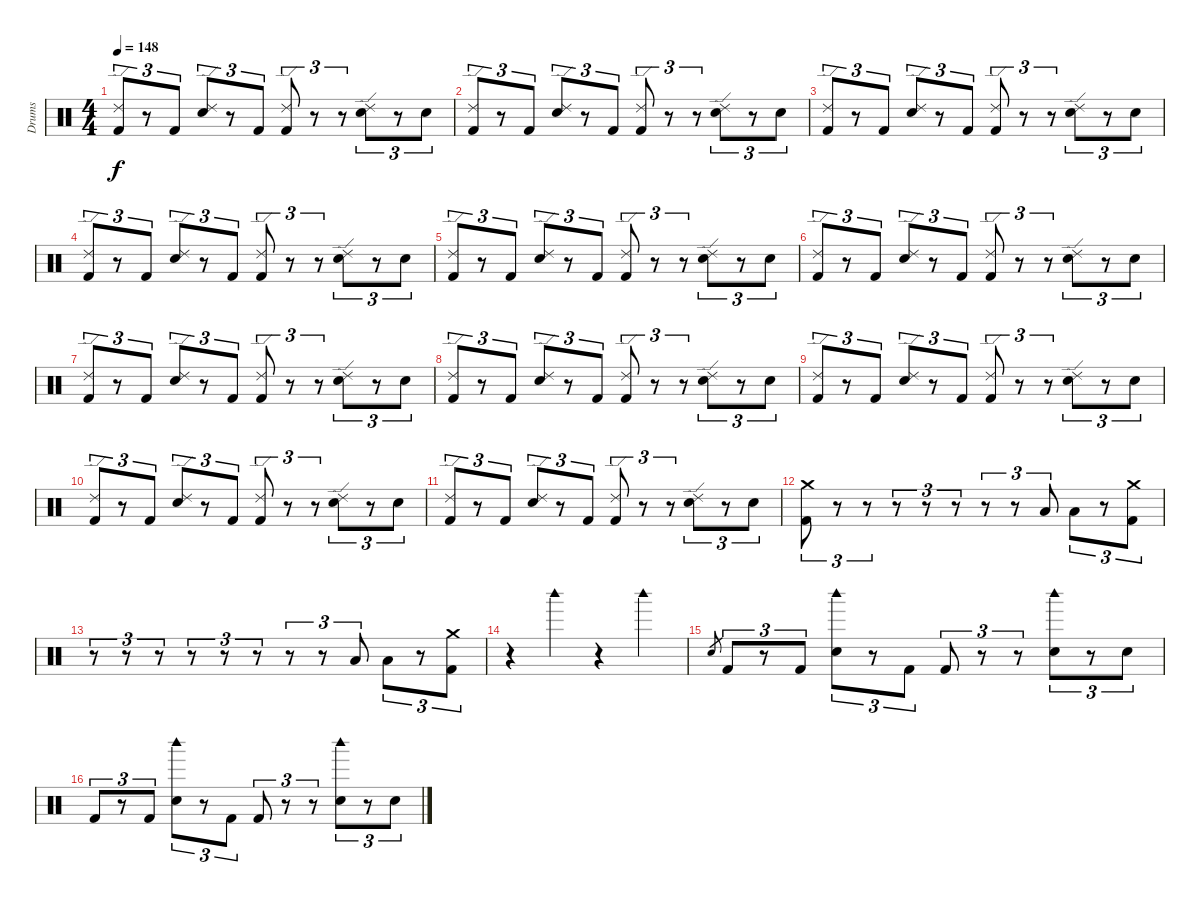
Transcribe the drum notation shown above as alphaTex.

\track ("Drums" "Drums") {instrument percussion}
\staff {score}
\articulation defaults
\ts (4 4)
\tempo 148
\clef neutral
\ks c
("Ride (edge) 2" "Kick (hit) 2").8{tu (3 2) dy f} r.8{tu (3 2)} "Kick (hit) 2".8{tu (3 2)} ("Ride (edge) 2" "Snare (hit) 2").8{tu (3 2)} r.8{tu (3 2)} "Kick (hit) 2".8{tu (3 2)} ("Ride (edge) 2" "Kick (hit) 2").8{tu (3 2)} r.8{tu (3 2)} r.8{tu (3 2)} ("Ride (edge) 2" "Snare (hit) 2").8{tu (3 2)} r.8{tu (3 2)} "Snare (hit) 2".8{tu (3 2)} |
("Ride (edge) 2" "Kick (hit) 2").8{tu (3 2)} r.8{tu (3 2)} "Kick (hit) 2".8{tu (3 2)} ("Ride (edge) 2" "Snare (hit) 2").8{tu (3 2)} r.8{tu (3 2)} "Kick (hit) 2".8{tu (3 2)} ("Ride (edge) 2" "Kick (hit) 2").8{tu (3 2)} r.8{tu (3 2)} r.8{tu (3 2)} ("Ride (edge) 2" "Snare (hit) 2").8{tu (3 2)} r.8{tu (3 2)} "Snare (hit) 2".8{tu (3 2)} |
("Ride (edge) 2" "Kick (hit) 2").8{tu (3 2)} r.8{tu (3 2)} "Kick (hit) 2".8{tu (3 2)} ("Ride (edge) 2" "Snare (hit) 2").8{tu (3 2)} r.8{tu (3 2)} "Kick (hit) 2".8{tu (3 2)} ("Ride (edge) 2" "Kick (hit) 2").8{tu (3 2)} r.8{tu (3 2)} r.8{tu (3 2)} ("Ride (edge) 2" "Snare (hit) 2").8{tu (3 2)} r.8{tu (3 2)} "Snare (hit) 2".8{tu (3 2)} |
("Ride (edge) 2" "Kick (hit) 2").8{tu (3 2)} r.8{tu (3 2)} "Kick (hit) 2".8{tu (3 2)} ("Ride (edge) 2" "Snare (hit) 2").8{tu (3 2)} r.8{tu (3 2)} "Kick (hit) 2".8{tu (3 2)} ("Ride (edge) 2" "Kick (hit) 2").8{tu (3 2)} r.8{tu (3 2)} r.8{tu (3 2)} ("Ride (edge) 2" "Snare (hit) 2").8{tu (3 2)} r.8{tu (3 2)} "Snare (hit) 2".8{tu (3 2)} |
("Ride (edge) 2" "Kick (hit) 2").8{tu (3 2)} r.8{tu (3 2)} "Kick (hit) 2".8{tu (3 2)} ("Ride (edge) 2" "Snare (hit) 2").8{tu (3 2)} r.8{tu (3 2)} "Kick (hit) 2".8{tu (3 2)} ("Ride (edge) 2" "Kick (hit) 2").8{tu (3 2)} r.8{tu (3 2)} r.8{tu (3 2)} ("Ride (edge) 2" "Snare (hit) 2").8{tu (3 2)} r.8{tu (3 2)} "Snare (hit) 2".8{tu (3 2)} |
("Ride (edge) 2" "Kick (hit) 2").8{tu (3 2)} r.8{tu (3 2)} "Kick (hit) 2".8{tu (3 2)} ("Ride (edge) 2" "Snare (hit) 2").8{tu (3 2)} r.8{tu (3 2)} "Kick (hit) 2".8{tu (3 2)} ("Ride (edge) 2" "Kick (hit) 2").8{tu (3 2)} r.8{tu (3 2)} r.8{tu (3 2)} ("Ride (edge) 2" "Snare (hit) 2").8{tu (3 2)} r.8{tu (3 2)} "Snare (hit) 2".8{tu (3 2)} |
("Ride (edge) 2" "Kick (hit) 2").8{tu (3 2)} r.8{tu (3 2)} "Kick (hit) 2".8{tu (3 2)} ("Ride (edge) 2" "Snare (hit) 2").8{tu (3 2)} r.8{tu (3 2)} "Kick (hit) 2".8{tu (3 2)} ("Ride (edge) 2" "Kick (hit) 2").8{tu (3 2)} r.8{tu (3 2)} r.8{tu (3 2)} ("Ride (edge) 2" "Snare (hit) 2").8{tu (3 2)} r.8{tu (3 2)} "Snare (hit) 2".8{tu (3 2)} |
("Ride (edge) 2" "Kick (hit) 2").8{tu (3 2)} r.8{tu (3 2)} "Kick (hit) 2".8{tu (3 2)} ("Ride (edge) 2" "Snare (hit) 2").8{tu (3 2)} r.8{tu (3 2)} "Kick (hit) 2".8{tu (3 2)} ("Ride (edge) 2" "Kick (hit) 2").8{tu (3 2)} r.8{tu (3 2)} r.8{tu (3 2)} ("Ride (edge) 2" "Snare (hit) 2").8{tu (3 2)} r.8{tu (3 2)} "Snare (hit) 2".8{tu (3 2)} |
("Ride (edge) 2" "Kick (hit) 2").8{tu (3 2)} r.8{tu (3 2)} "Kick (hit) 2".8{tu (3 2)} ("Ride (edge) 2" "Snare (hit) 2").8{tu (3 2)} r.8{tu (3 2)} "Kick (hit) 2".8{tu (3 2)} ("Ride (edge) 2" "Kick (hit) 2").8{tu (3 2)} r.8{tu (3 2)} r.8{tu (3 2)} ("Ride (edge) 2" "Snare (hit) 2").8{tu (3 2)} r.8{tu (3 2)} "Snare (hit) 2".8{tu (3 2)} |
("Ride (edge) 2" "Kick (hit) 2").8{tu (3 2)} r.8{tu (3 2)} "Kick (hit) 2".8{tu (3 2)} ("Ride (edge) 2" "Snare (hit) 2").8{tu (3 2)} r.8{tu (3 2)} "Kick (hit) 2".8{tu (3 2)} ("Ride (edge) 2" "Kick (hit) 2").8{tu (3 2)} r.8{tu (3 2)} r.8{tu (3 2)} ("Ride (edge) 2" "Snare (hit) 2").8{tu (3 2)} r.8{tu (3 2)} "Snare (hit) 2".8{tu (3 2)} |
("Ride (edge) 2" "Kick (hit) 2").8{tu (3 2)} r.8{tu (3 2)} "Kick (hit) 2".8{tu (3 2)} ("Ride (edge) 2" "Snare (hit) 2").8{tu (3 2)} r.8{tu (3 2)} "Kick (hit) 2".8{tu (3 2)} ("Ride (edge) 2" "Kick (hit) 2").8{tu (3 2)} r.8{tu (3 2)} r.8{tu (3 2)} ("Ride (edge) 2" "Snare (hit) 2").8{tu (3 2)} r.8{tu (3 2)} "Snare (hit) 2".8{tu (3 2)} |
("Crash medium (hit)" "Kick (hit) 2").8{tu (3 2)} r.8{tu (3 2)} r.8{tu (3 2)} r.8{tu (3 2)} r.8{tu (3 2)} r.8{tu (3 2)} r.8{tu (3 2)} r.8{tu (3 2)} "Low Tom (hit)".8{tu (3 2)} "Low Tom (hit)".8{tu (3 2)} r.8{tu (3 2)} ("Crash medium (hit)" "Kick (hit) 2").8{tu (3 2)} |
r.8{tu (3 2)} r.8{tu (3 2)} r.8{tu (3 2)} r.8{tu (3 2)} r.8{tu (3 2)} r.8{tu (3 2)} r.8{tu (3 2)} r.8{tu (3 2)} "Low Tom (hit)".8{tu (3 2)} "Low Tom (hit)".8{tu (3 2)} r.8{tu (3 2)} ("Crash medium (hit)" "Kick (hit) 2").8{tu (3 2)} |
r.4 "Woodblock high (hit)".4 r.4 "Woodblock high (hit)".4 |
"Snare (hit) 2".8{gr} "Kick (hit) 2".8{tu (3 2)} r.8{tu (3 2)} "Kick (hit) 2".8{tu (3 2)} ("Woodblock high (hit)" "Snare (hit) 2").8{tu (3 2)} r.8{tu (3 2)} "Kick (hit) 2".8{tu (3 2)} "Kick (hit) 2".8{tu (3 2)} r.8{tu (3 2)} r.8{tu (3 2)} ("Woodblock high (hit)" "Snare (hit) 2").8{tu (3 2)} r.8{tu (3 2)} "Snare (hit) 2".8{tu (3 2)} |
"Kick (hit) 2".8{tu (3 2)} r.8{tu (3 2)} "Kick (hit) 2".8{tu (3 2)} ("Woodblock high (hit)" "Snare (hit) 2").8{tu (3 2)} r.8{tu (3 2)} "Kick (hit) 2".8{tu (3 2)} "Kick (hit) 2".8{tu (3 2)} r.8{tu (3 2)} r.8{tu (3 2)} ("Woodblock high (hit)" "Snare (hit) 2").8{tu (3 2)} r.8{tu (3 2)} "Snare (hit) 2".8{tu (3 2)}
